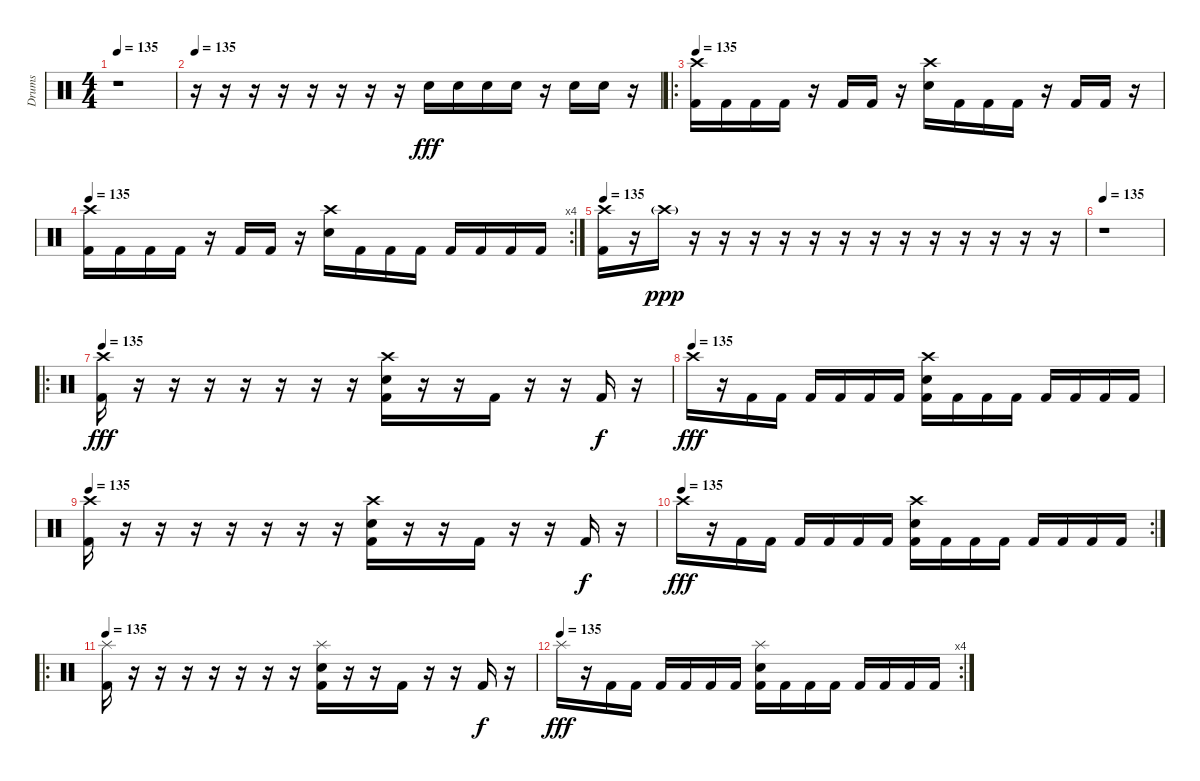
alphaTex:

\track ("Drums" "Drums") {instrument percussion}
\staff {score}
\articulation defaults
\ts (4 4)
\tempo 135
\clef neutral
\ks c
r.1{dy ff} |
\tempo 135
r.16 r.16 r.16 r.16 r.16 r.16 r.16 r.16 "Electric Snare (hit)".16{dy fff} "Electric Snare (hit)".16 "Electric Snare (hit)".16 "Electric Snare (hit)".16 r.16 "Electric Snare (hit)".16 "Electric Snare (hit)".16 r.16 |
\ro
\tempo 135
("Kick (hit) 2" "Crash high (hit)").16 "Kick (hit) 2".16 "Kick (hit) 2".16 "Kick (hit) 2".16 r.16 "Kick (hit) 2".16 "Kick (hit) 2".16 r.16 ("Electric Snare (hit)" "Crash high (hit)").16 "Kick (hit) 2".16 "Kick (hit) 2".16 "Kick (hit) 2".16 r.16 "Kick (hit) 2".16 "Kick (hit) 2".16 r.16 |
\rc 4
\tempo 135
("Kick (hit) 2" "Crash high (hit)").16 "Kick (hit) 2".16 "Kick (hit) 2".16 "Kick (hit) 2".16 r.16 "Kick (hit) 2".16 "Kick (hit) 2".16 r.16 ("Electric Snare (hit)" "Crash high (hit)").16 "Kick (hit) 2".16 "Kick (hit) 2".16 "Kick (hit) 2".16 "Kick (hit) 2".16 "Kick (hit) 2".16 "Kick (hit) 2".16 "Kick (hit) 2".16 |
\tempo 135
("Kick (hit) 2" "Crash high (hit)").16 r.16 "Crash high (hit)"{g}.16{dy ppp} r.16 r.16 r.16 r.16 r.16 r.16 r.16 r.16 r.16 r.16 r.16 r.16 r.16 |
\tempo 135
r.1 |
\ro
\tempo 135
("Kick (hit) 2" "Crash high (hit)").16{dy fff} r.16 r.16 r.16 r.16 r.16 r.16 r.16 ("Electric Snare (hit)" "Crash high (hit)" "Kick (hit) 2").16 r.16 r.16 "Kick (hit) 2".16 r.16 r.16 "Kick (hit) 2".16{dy f} r.16 |
\tempo (135)
"Crash high (hit)".16{dy fff} r.16 "Kick (hit) 2".16 "Kick (hit) 2".16 "Kick (hit) 2".16 "Kick (hit) 2".16 "Kick (hit) 2".16 "Kick (hit) 2".16 ("Electric Snare (hit)" "Crash high (hit)" "Kick (hit) 2").16 "Kick (hit) 2".16 "Kick (hit) 2".16 "Kick (hit) 2".16 "Kick (hit) 2".16 "Kick (hit) 2".16 "Kick (hit) 2".16 "Kick (hit) 2".16 |
\tempo 135
("Kick (hit) 2" "Crash high (hit)").16 r.16 r.16 r.16 r.16 r.16 r.16 r.16 ("Electric Snare (hit)" "Crash high (hit)" "Kick (hit) 2").16 r.16 r.16 "Kick (hit) 2".16 r.16 r.16 "Kick (hit) 2".16{dy f} r.16 |
\rc 2
\tempo (135)
"Crash high (hit)".16{dy fff} r.16 "Kick (hit) 2".16 "Kick (hit) 2".16 "Kick (hit) 2".16 "Kick (hit) 2".16 "Kick (hit) 2".16 "Kick (hit) 2".16 ("Electric Snare (hit)" "Crash high (hit)" "Kick (hit) 2").16 "Kick (hit) 2".16 "Kick (hit) 2".16 "Kick (hit) 2".16 "Kick (hit) 2".16 "Kick (hit) 2".16 "Kick (hit) 2".16 "Kick (hit) 2".16 |
\ro
\tempo 135
("Kick (hit) 2" "Splash (hit)").16 r.16 r.16 r.16 r.16 r.16 r.16 r.16 ("Electric Snare (hit)" "Kick (hit) 2" "Splash (hit)").16 r.16 r.16 "Kick (hit) 2".16 r.16 r.16 "Kick (hit) 2".16{dy f} r.16 |
\rc 4
\tempo (135)
"Splash (hit)".16{dy fff} r.16 "Kick (hit) 2".16 "Kick (hit) 2".16 "Kick (hit) 2".16 "Kick (hit) 2".16 "Kick (hit) 2".16 "Kick (hit) 2".16 ("Electric Snare (hit)" "Kick (hit) 2" "Splash (hit)").16 "Kick (hit) 2".16 "Kick (hit) 2".16 "Kick (hit) 2".16 "Kick (hit) 2".16 "Kick (hit) 2".16 "Kick (hit) 2".16 "Kick (hit) 2".16
